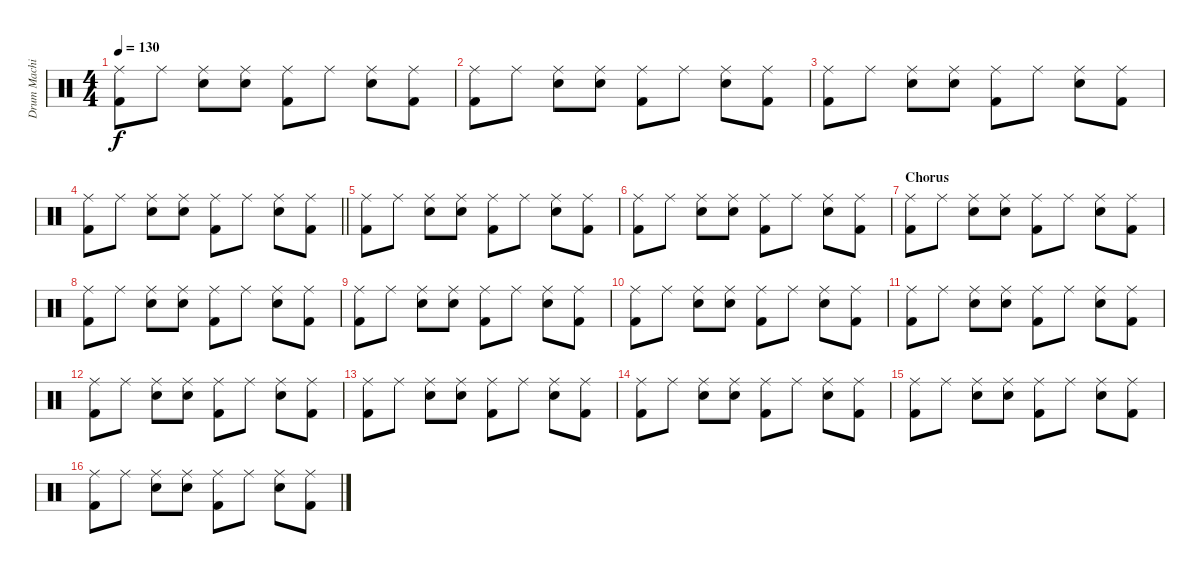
\track ("Drum Machine" "Drum Machi") {instrument percussion}
\staff {score}
\articulation defaults
\ts (4 4)
\tempo 130
\clef neutral
\ks c
("Ride (middle)" "Kick (hit) 2").8{dy f} "Ride (middle)".8 ("Ride (middle)" "Snare (hit) 2").8 ("Ride (middle)" "Snare (hit) 2").8 ("Ride (middle)" "Kick (hit) 2").8 "Ride (middle)".8 ("Ride (middle)" "Snare (hit) 2").8 ("Ride (middle)" "Kick (hit) 2").8 |
("Ride (middle)" "Kick (hit) 2").8 "Ride (middle)".8 ("Ride (middle)" "Snare (hit) 2").8 ("Ride (middle)" "Snare (hit) 2").8 ("Ride (middle)" "Kick (hit) 2").8 "Ride (middle)".8 ("Ride (middle)" "Snare (hit) 2").8 ("Ride (middle)" "Kick (hit) 2").8 |
("Ride (middle)" "Kick (hit) 2").8 "Ride (middle)".8 ("Ride (middle)" "Snare (hit) 2").8 ("Ride (middle)" "Snare (hit) 2").8 ("Ride (middle)" "Kick (hit) 2").8 "Ride (middle)".8 ("Ride (middle)" "Snare (hit) 2").8 ("Ride (middle)" "Kick (hit) 2").8 |
\barLineRight lightlight
("Ride (middle)" "Kick (hit) 2").8 "Ride (middle)".8 ("Ride (middle)" "Snare (hit) 2").8 ("Ride (middle)" "Snare (hit) 2").8 ("Ride (middle)" "Kick (hit) 2").8 "Ride (middle)".8 ("Ride (middle)" "Snare (hit) 2").8 ("Ride (middle)" "Kick (hit) 2").8 |
("Ride (middle)" "Kick (hit) 2").8 "Ride (middle)".8 ("Ride (middle)" "Snare (hit) 2").8 ("Ride (middle)" "Snare (hit) 2").8 ("Ride (middle)" "Kick (hit) 2").8 "Ride (middle)".8 ("Ride (middle)" "Snare (hit) 2").8 ("Ride (middle)" "Kick (hit) 2").8 |
("Ride (middle)" "Kick (hit) 2").8 "Ride (middle)".8 ("Ride (middle)" "Snare (hit) 2").8 ("Ride (middle)" "Snare (hit) 2").8 ("Ride (middle)" "Kick (hit) 2").8 "Ride (middle)".8 ("Ride (middle)" "Snare (hit) 2").8 ("Ride (middle)" "Kick (hit) 2").8 |
\section ("" "Chorus")
("Ride (middle)" "Kick (hit) 2").8 "Ride (middle)".8 ("Ride (middle)" "Snare (hit) 2").8 ("Ride (middle)" "Snare (hit) 2").8 ("Ride (middle)" "Kick (hit) 2").8 "Ride (middle)".8 ("Ride (middle)" "Snare (hit) 2").8 ("Ride (middle)" "Kick (hit) 2").8 |
("Ride (middle)" "Kick (hit) 2").8 "Ride (middle)".8 ("Ride (middle)" "Snare (hit) 2").8 ("Ride (middle)" "Snare (hit) 2").8 ("Ride (middle)" "Kick (hit) 2").8 "Ride (middle)".8 ("Ride (middle)" "Snare (hit) 2").8 ("Ride (middle)" "Kick (hit) 2").8 |
("Ride (middle)" "Kick (hit) 2").8 "Ride (middle)".8 ("Ride (middle)" "Snare (hit) 2").8 ("Ride (middle)" "Snare (hit) 2").8 ("Ride (middle)" "Kick (hit) 2").8 "Ride (middle)".8 ("Ride (middle)" "Snare (hit) 2").8 ("Ride (middle)" "Kick (hit) 2").8 |
("Ride (middle)" "Kick (hit) 2").8 "Ride (middle)".8 ("Ride (middle)" "Snare (hit) 2").8 ("Ride (middle)" "Snare (hit) 2").8 ("Ride (middle)" "Kick (hit) 2").8 "Ride (middle)".8 ("Ride (middle)" "Snare (hit) 2").8 ("Ride (middle)" "Kick (hit) 2").8 |
("Ride (middle)" "Kick (hit) 2").8 "Ride (middle)".8 ("Ride (middle)" "Snare (hit) 2").8 ("Ride (middle)" "Snare (hit) 2").8 ("Ride (middle)" "Kick (hit) 2").8 "Ride (middle)".8 ("Ride (middle)" "Snare (hit) 2").8 ("Ride (middle)" "Kick (hit) 2").8 |
("Ride (middle)" "Kick (hit) 2").8 "Ride (middle)".8 ("Ride (middle)" "Snare (hit) 2").8 ("Ride (middle)" "Snare (hit) 2").8 ("Ride (middle)" "Kick (hit) 2").8 "Ride (middle)".8 ("Ride (middle)" "Snare (hit) 2").8 ("Ride (middle)" "Kick (hit) 2").8 |
("Ride (middle)" "Kick (hit) 2").8 "Ride (middle)".8 ("Ride (middle)" "Snare (hit) 2").8 ("Ride (middle)" "Snare (hit) 2").8 ("Ride (middle)" "Kick (hit) 2").8 "Ride (middle)".8 ("Ride (middle)" "Snare (hit) 2").8 ("Ride (middle)" "Kick (hit) 2").8 |
("Ride (middle)" "Kick (hit) 2").8 "Ride (middle)".8 ("Ride (middle)" "Snare (hit) 2").8 ("Ride (middle)" "Snare (hit) 2").8 ("Ride (middle)" "Kick (hit) 2").8 "Ride (middle)".8 ("Ride (middle)" "Snare (hit) 2").8 ("Ride (middle)" "Kick (hit) 2").8 |
("Ride (middle)" "Kick (hit) 2").8 "Ride (middle)".8 ("Ride (middle)" "Snare (hit) 2").8 ("Ride (middle)" "Snare (hit) 2").8 ("Ride (middle)" "Kick (hit) 2").8 "Ride (middle)".8 ("Ride (middle)" "Snare (hit) 2").8 ("Ride (middle)" "Kick (hit) 2").8 |
("Ride (middle)" "Kick (hit) 2").8 "Ride (middle)".8 ("Ride (middle)" "Snare (hit) 2").8 ("Ride (middle)" "Snare (hit) 2").8 ("Ride (middle)" "Kick (hit) 2").8 "Ride (middle)".8 ("Ride (middle)" "Snare (hit) 2").8 ("Ride (middle)" "Kick (hit) 2").8
